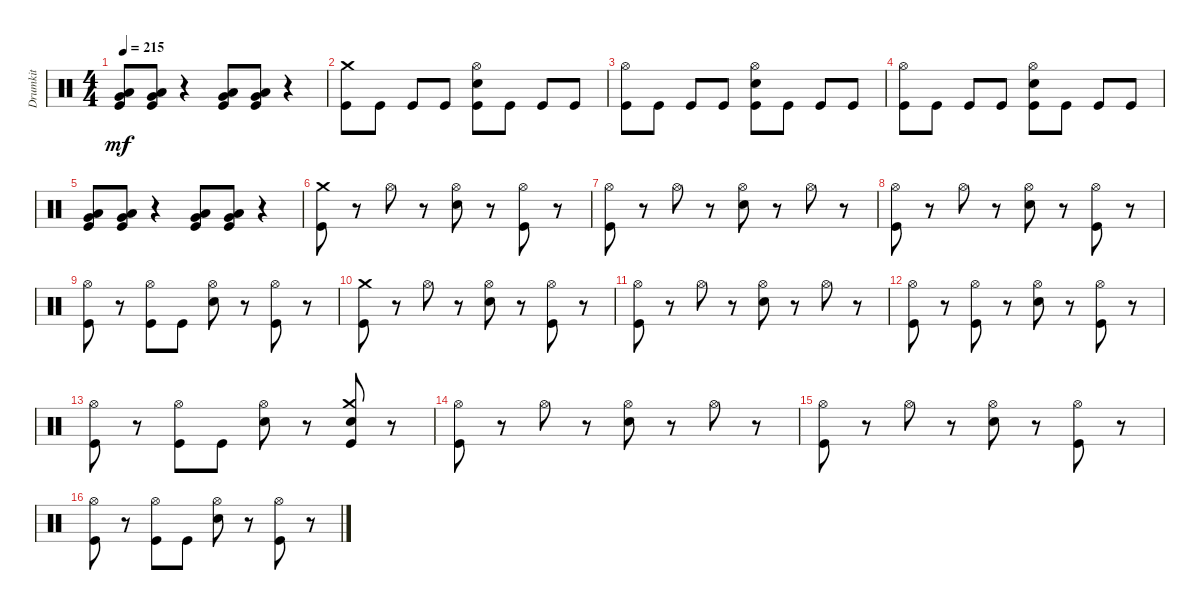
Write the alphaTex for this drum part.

\track ("Drumkit" "Drumkit") {instrument percussion}
\staff {score}
\articulation defaults
\ts (4 4)
\tempo 215
\clef neutral
\ks c
("Kick (hit)" "Very Low Tom (hit)" "Low Tom (hit)").8{dy mf} ("Kick (hit)" "Very Low Tom (hit)" "Low Tom (hit)").8 r.4 ("Kick (hit)" "Very Low Tom (hit)" "Low Tom (hit)").8 ("Kick (hit)" "Very Low Tom (hit)" "Low Tom (hit)").8 r.4 |
("Kick (hit)" "Crash medium (hit)").8 "Kick (hit)".8 "Kick (hit)".8 "Kick (hit)".8 ("Kick (hit)" "Snare (hit) 2" "Hi-Hat (open)").8 "Kick (hit)".8 "Kick (hit)".8 "Kick (hit)".8 |
("Kick (hit)" "Hi-Hat (open)").8 "Kick (hit)".8 "Kick (hit)".8 "Kick (hit)".8 ("Kick (hit)" "Snare (hit) 2" "Hi-Hat (open)").8 "Kick (hit)".8 "Kick (hit)".8 "Kick (hit)".8 |
("Kick (hit)" "Hi-Hat (open)").8 "Kick (hit)".8 "Kick (hit)".8 "Kick (hit)".8 ("Kick (hit)" "Snare (hit) 2" "Hi-Hat (open)").8 "Kick (hit)".8 "Kick (hit)".8 "Kick (hit)".8 |
("Kick (hit)" "Very Low Tom (hit)" "Low Tom (hit)").8 ("Kick (hit)" "Very Low Tom (hit)" "Low Tom (hit)").8 r.4 ("Kick (hit)" "Very Low Tom (hit)" "Low Tom (hit)").8 ("Kick (hit)" "Very Low Tom (hit)" "Low Tom (hit)").8 r.4 |
("Kick (hit)" "Crash medium (hit)").8 r.8 "Hi-Hat (open)".8 r.8 ("Snare (hit) 2" "Hi-Hat (open)").8 r.8 ("Kick (hit)" "Hi-Hat (open)").8 r.8 |
("Kick (hit)" "Hi-Hat (open)").8 r.8 "Hi-Hat (open)".8 r.8 ("Snare (hit) 2" "Hi-Hat (open)").8 r.8 "Hi-Hat (open)".8 r.8 |
("Kick (hit)" "Hi-Hat (open)").8 r.8 "Hi-Hat (open)".8 r.8 ("Snare (hit) 2" "Hi-Hat (open)").8 r.8 ("Kick (hit)" "Hi-Hat (open)").8 r.8 |
("Kick (hit)" "Hi-Hat (open)").8 r.8 ("Kick (hit)" "Hi-Hat (open)").8 "Kick (hit)".8 ("Snare (hit) 2" "Hi-Hat (open)").8 r.8 ("Kick (hit)" "Hi-Hat (open)").8 r.8 |
("Kick (hit)" "Crash medium (hit)").8 r.8 "Hi-Hat (open)".8 r.8 ("Snare (hit) 2" "Hi-Hat (open)").8 r.8 ("Kick (hit)" "Hi-Hat (open)").8 r.8 |
("Kick (hit)" "Hi-Hat (open)").8 r.8 "Hi-Hat (open)".8 r.8 ("Snare (hit) 2" "Hi-Hat (open)").8 r.8 "Hi-Hat (open)".8 r.8 |
("Kick (hit)" "Hi-Hat (open)").8 r.8 ("Hi-Hat (open)" "Kick (hit)").8 r.8 ("Snare (hit) 2" "Hi-Hat (open)").8 r.8 ("Kick (hit)" "Hi-Hat (open)").8 r.8 |
("Kick (hit)" "Hi-Hat (open)").8 r.8 ("Kick (hit)" "Hi-Hat (open)").8 "Kick (hit)".8 ("Snare (hit) 2" "Hi-Hat (open)").8 r.8 ("Kick (hit)" "Snare (hit) 2" "Crash medium (hit)").8 r.8 |
("Kick (hit)" "Hi-Hat (open)").8 r.8 "Hi-Hat (open)".8 r.8 ("Snare (hit) 2" "Hi-Hat (open)").8 r.8 "Hi-Hat (open)".8 r.8 |
("Kick (hit)" "Hi-Hat (open)").8 r.8 "Hi-Hat (open)".8 r.8 ("Snare (hit) 2" "Hi-Hat (open)").8 r.8 ("Kick (hit)" "Hi-Hat (open)").8 r.8 |
("Kick (hit)" "Hi-Hat (open)").8 r.8 ("Kick (hit)" "Hi-Hat (open)").8 "Kick (hit)".8 ("Snare (hit) 2" "Hi-Hat (open)").8 r.8 ("Kick (hit)" "Hi-Hat (open)").8 r.8
